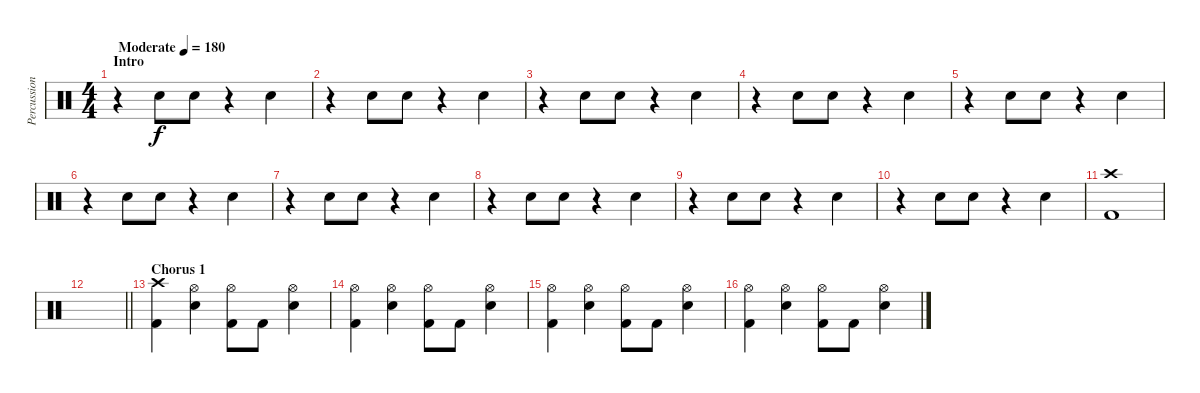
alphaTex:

\track ("Percussion" "Percussion") {instrument percussion}
\staff {score}
\articulation defaults
\ts (4 4)
\section ("" "Intro")
\tempo (180 "Moderate")
\clef neutral
\ks c
r.4{dy f} "Hand Clap (hit)".8 "Hand Clap (hit)".8 r.4 "Hand Clap (hit)".4 |
r.4 "Hand Clap (hit)".8 "Hand Clap (hit)".8 r.4 "Hand Clap (hit)".4 |
r.4 "Hand Clap (hit)".8 "Hand Clap (hit)".8 r.4 "Hand Clap (hit)".4 |
r.4 "Hand Clap (hit)".8 "Hand Clap (hit)".8 r.4 "Hand Clap (hit)".4 |
r.4 "Hand Clap (hit)".8 "Hand Clap (hit)".8 r.4 "Hand Clap (hit)".4 |
r.4 "Hand Clap (hit)".8 "Hand Clap (hit)".8 r.4 "Hand Clap (hit)".4 |
r.4 "Hand Clap (hit)".8 "Hand Clap (hit)".8 r.4 "Hand Clap (hit)".4 |
r.4 "Hand Clap (hit)".8 "Hand Clap (hit)".8 r.4 "Hand Clap (hit)".4 |
r.4 "Hand Clap (hit)".8 "Hand Clap (hit)".8 r.4 "Hand Clap (hit)".4 |
r.4 "Hand Clap (hit)".8 "Hand Clap (hit)".8 r.4 "Hand Clap (hit)".4 |
("Crash high (hit)" "Kick (hit) 2").1 |
\barLineRight lightlight
|
\section ("" "Chorus 1")
("Crash high (hit)" "Kick (hit) 2").4 ("Hi-Hat (open)" "Snare (hit) 2").4 ("Hi-Hat (open)" "Kick (hit) 2").8 "Kick (hit) 2".8 ("Hi-Hat (open)" "Snare (hit) 2").4 |
("Hi-Hat (open)" "Kick (hit) 2").4 ("Hi-Hat (open)" "Snare (hit) 2").4 ("Hi-Hat (open)" "Kick (hit) 2").8 "Kick (hit) 2".8 ("Hi-Hat (open)" "Snare (hit) 2").4 |
("Hi-Hat (open)" "Kick (hit) 2").4 ("Hi-Hat (open)" "Snare (hit) 2").4 ("Hi-Hat (open)" "Kick (hit) 2").8 "Kick (hit) 2".8 ("Hi-Hat (open)" "Snare (hit) 2").4 |
("Hi-Hat (open)" "Kick (hit) 2").4 ("Hi-Hat (open)" "Snare (hit) 2").4 ("Hi-Hat (open)" "Kick (hit) 2").8 "Kick (hit) 2".8 ("Hi-Hat (open)" "Snare (hit) 2").4
